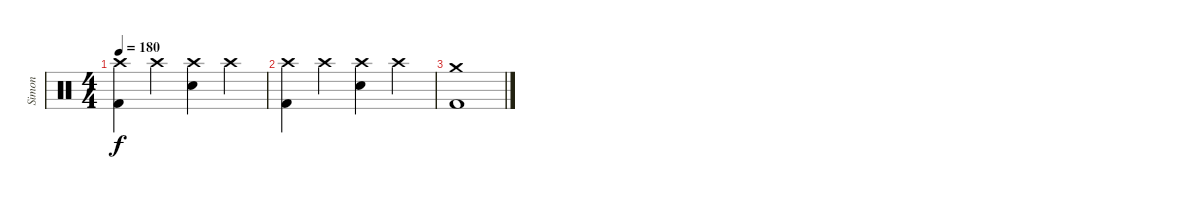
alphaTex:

\track ("Simon" "Simon") {instrument percussion}
\staff {score}
\articulation defaults
\ts (4 4)
\tempo 180
\clef neutral
\ks c
("Crash high (hit)" "Kick (hit) 2").4{dy f} "Crash high (hit)".4 ("Crash high (hit)" "Snare (hit) 2").4 "Crash high (hit)".4 |
("Crash high (hit)" "Kick (hit) 2").4 "Crash high (hit)".4 ("Crash high (hit)" "Snare (hit) 2").4 "Crash high (hit)".4 |
("Crash medium (hit)" "Kick (hit) 2").1
